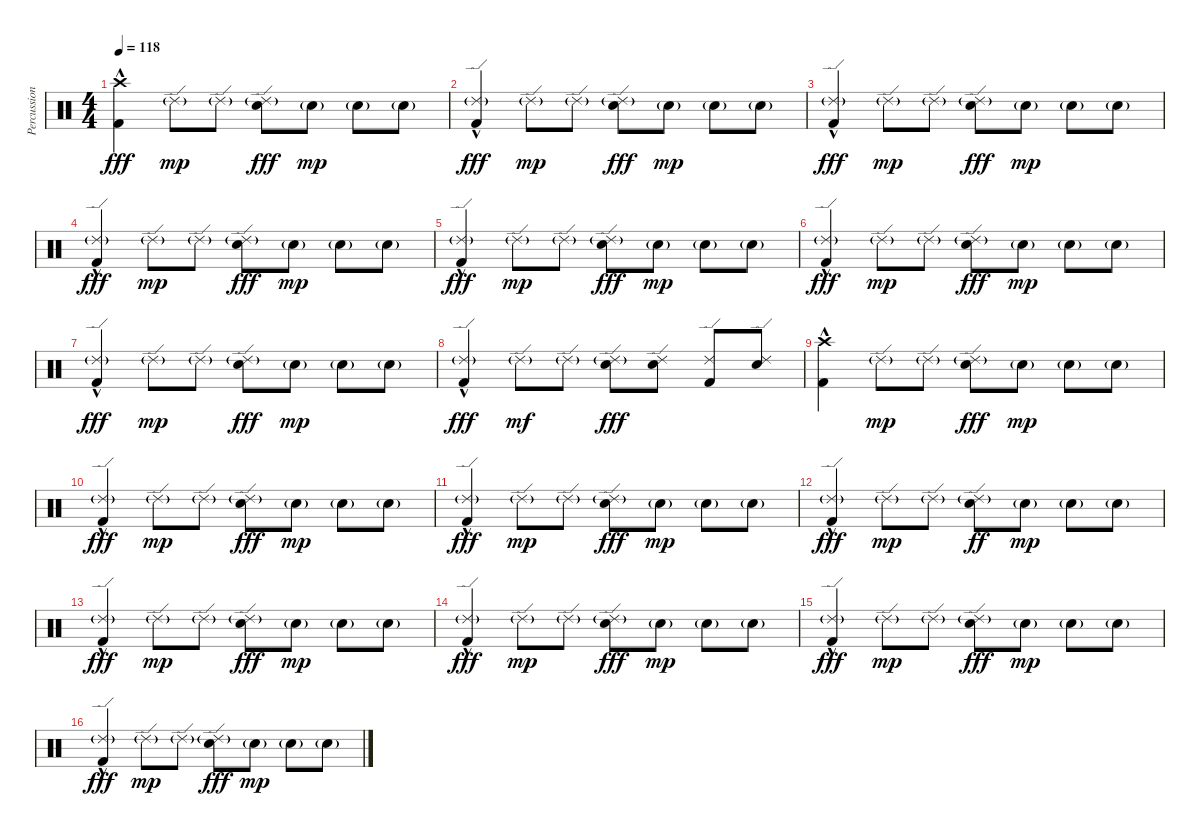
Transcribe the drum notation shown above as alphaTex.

\track ("Percussion" "Percussion") {instrument percussion}
\staff {score}
\articulation defaults
\ts (4 4)
\tempo 118
\clef neutral
\ks c
("Crash high (hit)" "Kick (hit) 2"{hac}).4{dy fff volume 16} "Ride (edge) 2"{g}.8{dy mp} "Ride (edge) 2"{g}.8 ("Ride (edge) 2"{g} "Electric Snare (hit)").8{dy fff} "Electric Snare (hit)"{g}.8{dy mp} "Electric Snare (hit)"{g}.8 "Electric Snare (hit)"{g}.8 |
("Ride (edge) 2"{g} "Kick (hit) 2"{hac}).4{dy fff} "Ride (edge) 2"{g}.8{dy mp} "Ride (edge) 2"{g}.8 ("Ride (edge) 2"{g} "Electric Snare (hit)").8{dy fff} "Electric Snare (hit)"{g}.8{dy mp} "Electric Snare (hit)"{g}.8 "Electric Snare (hit)"{g}.8 |
("Ride (edge) 2"{g} "Kick (hit) 2"{hac}).4{dy fff} "Ride (edge) 2"{g}.8{dy mp} "Ride (edge) 2"{g}.8 ("Ride (edge) 2"{g} "Electric Snare (hit)").8{dy fff} "Electric Snare (hit)"{g}.8{dy mp} "Electric Snare (hit)"{g}.8 "Electric Snare (hit)"{g}.8 |
("Ride (edge) 2"{g} "Kick (hit) 2"{hac}).4{dy fff} "Ride (edge) 2"{g}.8{dy mp} "Ride (edge) 2"{g}.8 ("Ride (edge) 2"{g} "Electric Snare (hit)").8{dy fff} "Electric Snare (hit)"{g}.8{dy mp} "Electric Snare (hit)"{g}.8 "Electric Snare (hit)"{g}.8 |
("Ride (edge) 2"{g} "Kick (hit) 2"{hac}).4{dy fff} "Ride (edge) 2"{g}.8{dy mp} "Ride (edge) 2"{g}.8 ("Ride (edge) 2"{g} "Electric Snare (hit)").8{dy fff} "Electric Snare (hit)"{g}.8{dy mp} "Electric Snare (hit)"{g}.8 "Electric Snare (hit)"{g}.8 |
("Ride (edge) 2"{g} "Kick (hit) 2"{hac}).4{dy fff} "Ride (edge) 2"{g}.8{dy mp} "Ride (edge) 2"{g}.8 ("Ride (edge) 2"{g} "Electric Snare (hit)").8{dy fff} "Electric Snare (hit)"{g}.8{dy mp} "Electric Snare (hit)"{g}.8 "Electric Snare (hit)"{g}.8 |
("Ride (edge) 2"{g} "Kick (hit) 2"{hac}).4{dy fff} "Ride (edge) 2"{g}.8{dy mp} "Ride (edge) 2"{g}.8 ("Ride (edge) 2"{g} "Electric Snare (hit)").8{dy fff} "Electric Snare (hit)"{g}.8{dy mp} "Electric Snare (hit)"{g}.8 "Electric Snare (hit)"{g}.8 |
("Ride (edge) 2"{g} "Kick (hit) 2"{hac}).4{dy fff} "Ride (edge) 2"{g}.8{dy mf} "Ride (edge) 2"{g}.8 ("Ride (edge) 2"{g} "Electric Snare (hit)").8{dy fff} ("Ride (edge) 2" "Electric Snare (hit)").8 ("Ride (edge) 2" "Kick (hit) 2").8 ("Ride (edge) 2" "Electric Snare (hit)").8 |
("Crash high (hit)" "Kick (hit) 2"{hac}).4 "Ride (edge) 2"{g}.8{dy mp} "Ride (edge) 2"{g}.8 ("Ride (edge) 2"{g} "Electric Snare (hit)").8{dy fff} "Electric Snare (hit)"{g}.8{dy mp} "Electric Snare (hit)"{g}.8 "Electric Snare (hit)"{g}.8 |
("Ride (edge) 2"{g} "Kick (hit) 2"{hac}).4{dy fff} "Ride (edge) 2"{g}.8{dy mp} "Ride (edge) 2"{g}.8 ("Ride (edge) 2"{g} "Electric Snare (hit)").8{dy fff} "Electric Snare (hit)"{g}.8{dy mp} "Electric Snare (hit)"{g}.8 "Electric Snare (hit)"{g}.8 |
("Ride (edge) 2"{g} "Kick (hit) 2"{hac}).4{dy fff} "Ride (edge) 2"{g}.8{dy mp} "Ride (edge) 2"{g}.8 ("Ride (edge) 2"{g} "Electric Snare (hit)").8{dy fff} "Electric Snare (hit)"{g}.8{dy mp} "Electric Snare (hit)"{g}.8 "Electric Snare (hit)"{g}.8 |
("Ride (edge) 2"{g} "Kick (hit) 2"{hac}).4{dy fff} "Ride (edge) 2"{g}.8{dy mp} "Ride (edge) 2"{g}.8 ("Ride (edge) 2"{g} "Electric Snare (hit)").8{dy ff} "Electric Snare (hit)"{g}.8{dy mp} "Electric Snare (hit)"{g}.8 "Electric Snare (hit)"{g}.8 |
("Ride (edge) 2"{g} "Kick (hit) 2"{hac}).4{dy fff} "Ride (edge) 2"{g}.8{dy mp} "Ride (edge) 2"{g}.8 ("Ride (edge) 2"{g} "Electric Snare (hit)").8{dy fff} "Electric Snare (hit)"{g}.8{dy mp} "Electric Snare (hit)"{g}.8 "Electric Snare (hit)"{g}.8 |
("Ride (edge) 2"{g} "Kick (hit) 2"{hac}).4{dy fff} "Ride (edge) 2"{g}.8{dy mp} "Ride (edge) 2"{g}.8 ("Ride (edge) 2"{g} "Electric Snare (hit)").8{dy fff} "Electric Snare (hit)"{g}.8{dy mp} "Electric Snare (hit)"{g}.8 "Electric Snare (hit)"{g}.8 |
("Ride (edge) 2"{g} "Kick (hit) 2"{hac}).4{dy fff} "Ride (edge) 2"{g}.8{dy mp} "Ride (edge) 2"{g}.8 ("Ride (edge) 2"{g} "Electric Snare (hit)").8{dy fff} "Electric Snare (hit)"{g}.8{dy mp} "Electric Snare (hit)"{g}.8 "Electric Snare (hit)"{g}.8 |
("Ride (edge) 2"{g} "Kick (hit) 2"{hac}).4{dy fff} "Ride (edge) 2"{g}.8{dy mp} "Ride (edge) 2"{g}.8 ("Ride (edge) 2"{g} "Electric Snare (hit)").8{dy fff} "Electric Snare (hit)"{g}.8{dy mp} "Electric Snare (hit)"{g}.8 "Electric Snare (hit)"{g}.8
